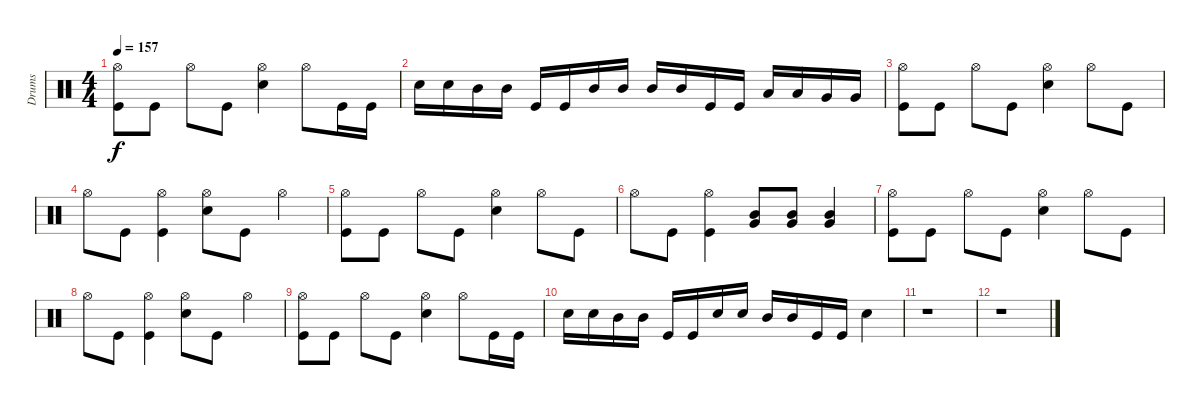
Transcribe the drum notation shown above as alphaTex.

\track ("Drums" "Drums") {instrument percussion}
\staff {score}
\articulation defaults
\ts (4 4)
\tempo 157
\clef neutral
\ks c
("Hi-Hat (open)" "Kick (hit)").8{dy f} "Kick (hit)".8 "Hi-Hat (open)".8 "Kick (hit)".8 ("Hi-Hat (open)" "Snare (hit) 2").4 "Hi-Hat (open)".8 "Kick (hit)".16 "Kick (hit)".16 |
"Snare (hit) 2".16 "Snare (hit) 2".16 "Mid Tom (hit)".16 "Mid Tom (hit)".16 "Kick (hit)".16 "Kick (hit)".16 "Mid Tom (hit)".16 "Mid Tom (hit)".16 "Mid Tom (hit)".16 "Mid Tom (hit)".16 "Kick (hit)".16 "Kick (hit)".16 "Low Tom (hit)".16 "Low Tom (hit)".16 "Very Low Tom (hit)".16 "Very Low Tom (hit)".16 |
("Hi-Hat (open)" "Kick (hit)").8 "Kick (hit)".8 "Hi-Hat (open)".8 "Kick (hit)".8 ("Hi-Hat (open)" "Snare (hit) 2").4 "Hi-Hat (open)".8 "Kick (hit)".8 |
"Hi-Hat (open)".8 "Kick (hit)".8 ("Hi-Hat (open)" "Kick (hit)").4 ("Hi-Hat (open)" "Snare (hit) 2").8 "Kick (hit)".8 "Hi-Hat (open)".4 |
("Hi-Hat (open)" "Kick (hit)").8 "Kick (hit)".8 "Hi-Hat (open)".8 "Kick (hit)".8 ("Hi-Hat (open)" "Snare (hit) 2").4 "Hi-Hat (open)".8 "Kick (hit)".8 |
"Hi-Hat (open)".8 "Kick (hit)".8 ("Hi-Hat (open)" "Kick (hit)").4 ("Very Low Tom (hit)" "Mid Tom (hit)").8 ("Very Low Tom (hit)" "Mid Tom (hit)").8 ("Very Low Tom (hit)" "Mid Tom (hit)").4 |
("Hi-Hat (open)" "Kick (hit)").8 "Kick (hit)".8 "Hi-Hat (open)".8 "Kick (hit)".8 ("Hi-Hat (open)" "Snare (hit) 2").4 "Hi-Hat (open)".8 "Kick (hit)".8 |
"Hi-Hat (open)".8 "Kick (hit)".8 ("Hi-Hat (open)" "Kick (hit)").4 ("Hi-Hat (open)" "Snare (hit) 2").8 "Kick (hit)".8 "Hi-Hat (open)".4 |
("Hi-Hat (open)" "Kick (hit)").8 "Kick (hit)".8 "Hi-Hat (open)".8 "Kick (hit)".8 ("Hi-Hat (open)" "Snare (hit) 2").4 "Hi-Hat (open)".8 "Kick (hit)".16 "Kick (hit)".16 |
"Snare (hit) 2".16 "Snare (hit) 2".16 "Mid Tom (hit)".16 "Mid Tom (hit)".16 "Kick (hit)".16 "Kick (hit)".16 "Snare (hit) 2".16 "Snare (hit) 2".16 "Mid Tom (hit)".16 "Mid Tom (hit)".16 "Kick (hit)".16 "Kick (hit)".16 "Snare (hit) 2".4 |
r.1 |
r.1
